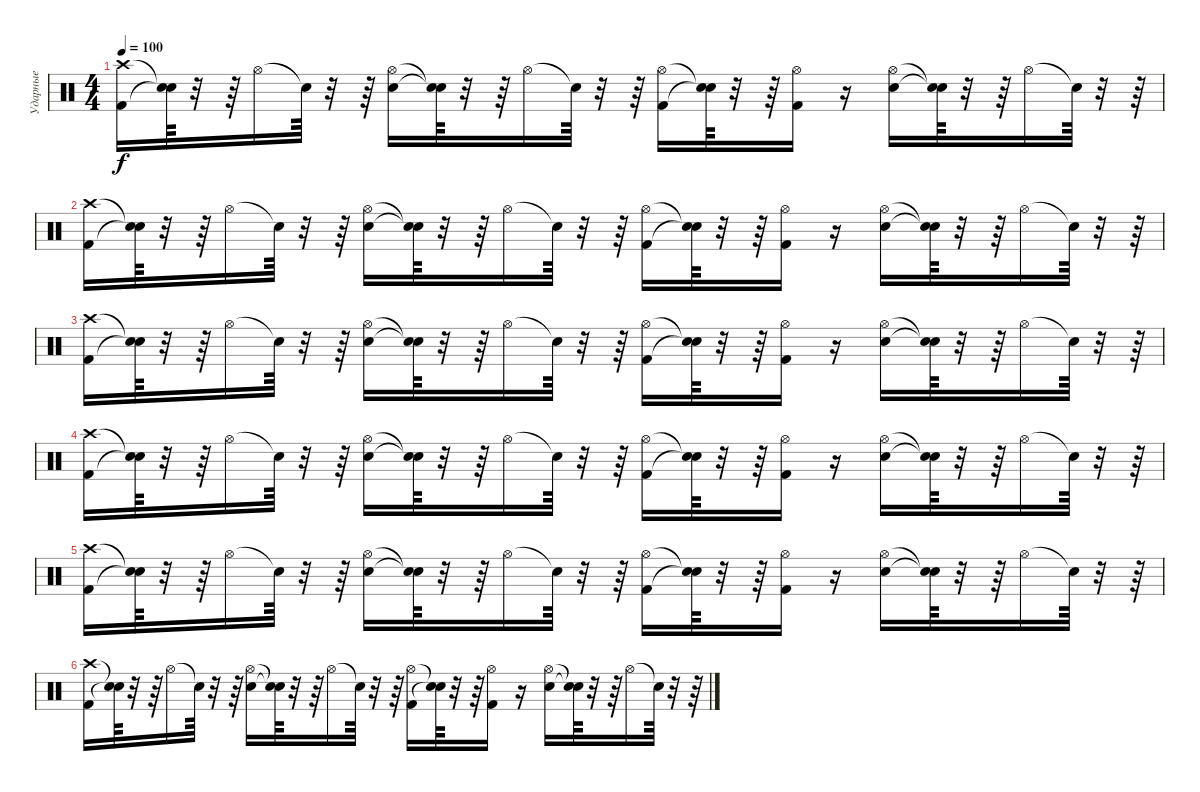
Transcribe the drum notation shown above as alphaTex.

\track ("Ударные" "Ударные") {instrument percussion}
\staff {score}
\articulation defaults
\ts (4 4)
\tempo 100
\clef neutral
\ks c
("Crash high (hit)" "Kick (hit) 2").16{dy f} ("Snare (hit)"{t} "Snare (hit)"{t}).64 r.32 r.64 "Hi-Hat (open)".16 "Snare (hit)"{t}.64 r.32 r.64 ("Hi-Hat (open)" "Electric Snare (hit)").16 ("Snare (hit)"{t} "Snare (hit)"{t}).64 r.32 r.64 "Hi-Hat (open)".16 "Snare (hit)"{t}.64 r.32 r.64 ("Hi-Hat (open)" "Kick (hit) 2").16 ("Snare (hit)"{t} "Snare (hit)"{t}).64 r.32 r.64 ("Kick (hit) 2" "Hi-Hat (open)").16 r.16 ("Hi-Hat (open)" "Electric Snare (hit)").16 ("Snare (hit)"{t} "Snare (hit)"{t}).64 r.32 r.64 "Hi-Hat (open)".16 "Snare (hit)"{t}.64 r.32 r.64 |
("Crash high (hit)" "Kick (hit) 2").16 ("Snare (hit)"{t} "Snare (hit)"{t}).64 r.32 r.64 "Hi-Hat (open)".16 "Snare (hit)"{t}.64 r.32 r.64 ("Hi-Hat (open)" "Electric Snare (hit)").16 ("Snare (hit)"{t} "Snare (hit)"{t}).64 r.32 r.64 "Hi-Hat (open)".16 "Snare (hit)"{t}.64 r.32 r.64 ("Hi-Hat (open)" "Kick (hit) 2").16 ("Snare (hit)"{t} "Snare (hit)"{t}).64 r.32 r.64 ("Kick (hit) 2" "Hi-Hat (open)").16 r.16 ("Hi-Hat (open)" "Electric Snare (hit)").16 ("Snare (hit)"{t} "Snare (hit)"{t}).64 r.32 r.64 "Hi-Hat (open)".16 "Snare (hit)"{t}.64 r.32 r.64 |
("Crash high (hit)" "Kick (hit) 2").16 ("Snare (hit)"{t} "Snare (hit)"{t}).64 r.32 r.64 "Hi-Hat (open)".16 "Snare (hit)"{t}.64 r.32 r.64 ("Hi-Hat (open)" "Electric Snare (hit)").16 ("Snare (hit)"{t} "Snare (hit)"{t}).64 r.32 r.64 "Hi-Hat (open)".16 "Snare (hit)"{t}.64 r.32 r.64 ("Hi-Hat (open)" "Kick (hit) 2").16 ("Snare (hit)"{t} "Snare (hit)"{t}).64 r.32 r.64 ("Kick (hit) 2" "Hi-Hat (open)").16 r.16 ("Hi-Hat (open)" "Electric Snare (hit)").16 ("Snare (hit)"{t} "Snare (hit)"{t}).64 r.32 r.64 "Hi-Hat (open)".16 "Snare (hit)"{t}.64 r.32 r.64 |
("Crash high (hit)" "Kick (hit) 2").16 ("Snare (hit)"{t} "Snare (hit)"{t}).64 r.32 r.64 "Hi-Hat (open)".16 "Snare (hit)"{t}.64 r.32 r.64 ("Hi-Hat (open)" "Electric Snare (hit)").16 ("Snare (hit)"{t} "Snare (hit)"{t}).64 r.32 r.64 "Hi-Hat (open)".16 "Snare (hit)"{t}.64 r.32 r.64 ("Hi-Hat (open)" "Kick (hit) 2").16 ("Snare (hit)"{t} "Snare (hit)"{t}).64 r.32 r.64 ("Kick (hit) 2" "Hi-Hat (open)").16 r.16 ("Hi-Hat (open)" "Electric Snare (hit)").16 ("Snare (hit)"{t} "Snare (hit)"{t}).64 r.32 r.64 "Hi-Hat (open)".16 "Snare (hit)"{t}.64 r.32 r.64 |
("Crash high (hit)" "Kick (hit) 2").16 ("Snare (hit)"{t} "Snare (hit)"{t}).64 r.32 r.64 "Hi-Hat (open)".16 "Snare (hit)"{t}.64 r.32 r.64 ("Hi-Hat (open)" "Electric Snare (hit)").16 ("Snare (hit)"{t} "Snare (hit)"{t}).64 r.32 r.64 "Hi-Hat (open)".16 "Snare (hit)"{t}.64 r.32 r.64 ("Hi-Hat (open)" "Kick (hit) 2").16 ("Snare (hit)"{t} "Snare (hit)"{t}).64 r.32 r.64 ("Kick (hit) 2" "Hi-Hat (open)").16 r.16 ("Hi-Hat (open)" "Electric Snare (hit)").16 ("Snare (hit)"{t} "Snare (hit)"{t}).64 r.32 r.64 "Hi-Hat (open)".16 "Snare (hit)"{t}.64 r.32 r.64 |
("Crash high (hit)" "Kick (hit) 2").16 ("Snare (hit)"{t} "Snare (hit)"{t}).64 r.32 r.64 "Hi-Hat (open)".16 "Snare (hit)"{t}.64 r.32 r.64 ("Hi-Hat (open)" "Electric Snare (hit)").16 ("Snare (hit)"{t} "Snare (hit)"{t}).64 r.32 r.64 "Hi-Hat (open)".16 "Snare (hit)"{t}.64 r.32 r.64 ("Hi-Hat (open)" "Kick (hit) 2").16 ("Snare (hit)"{t} "Snare (hit)"{t}).64 r.32 r.64 ("Kick (hit) 2" "Hi-Hat (open)").16 r.16 ("Hi-Hat (open)" "Electric Snare (hit)").16 ("Snare (hit)"{t} "Snare (hit)"{t}).64 r.32 r.64 "Hi-Hat (open)".16 "Snare (hit)"{t}.64 r.32 r.64
